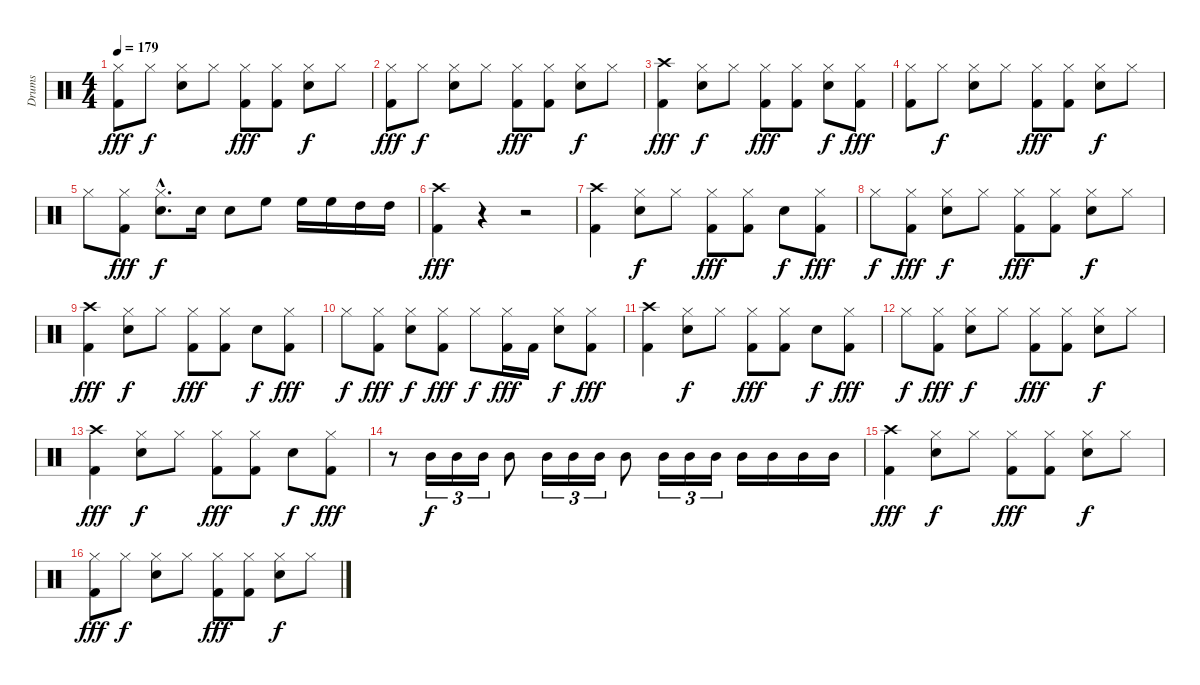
\track ("Drums" "Drums") {instrument percussion}
\staff {score}
\articulation defaults
\ts (4 4)
\tempo 179
\clef neutral
\ks c
("Hi-Hat (closed)" "Kick (hit) 2").8{dy fff} "Hi-Hat (closed)".8{dy f} ("Hi-Hat (closed)" "Electric Snare (hit)").8 "Hi-Hat (closed)".8 ("Hi-Hat (closed)" "Kick (hit) 2").8{dy fff} ("Hi-Hat (closed)" "Kick (hit) 2").8 ("Hi-Hat (closed)" "Electric Snare (hit)").8{dy f} "Hi-Hat (closed)".8 |
("Hi-Hat (closed)" "Kick (hit) 2").8{dy fff} "Hi-Hat (closed)".8{dy f} ("Hi-Hat (closed)" "Electric Snare (hit)").8 "Hi-Hat (closed)".8 ("Hi-Hat (closed)" "Kick (hit) 2").8{dy fff} ("Hi-Hat (closed)" "Kick (hit) 2").8 ("Hi-Hat (closed)" "Electric Snare (hit)").8{dy f} "Hi-Hat (closed)".8 |
("Crash high (hit)" "Kick (hit) 2").4{dy fff} ("Hi-Hat (closed)" "Electric Snare (hit)").8{dy f} "Hi-Hat (closed)".8 ("Hi-Hat (closed)" "Kick (hit) 2").8{dy fff} ("Hi-Hat (closed)" "Kick (hit) 2").8 ("Hi-Hat (closed)" "Electric Snare (hit)").8{dy f} ("Hi-Hat (closed)" "Kick (hit) 2").8{dy fff} |
("Hi-Hat (closed)" "Kick (hit) 2").8 "Hi-Hat (closed)".8{dy f} ("Hi-Hat (closed)" "Electric Snare (hit)").8 "Hi-Hat (closed)".8 ("Hi-Hat (closed)" "Kick (hit) 2").8{dy fff} ("Hi-Hat (closed)" "Kick (hit) 2").8 ("Hi-Hat (closed)" "Electric Snare (hit)").8{dy f} "Hi-Hat (closed)".8 |
"Hi-Hat (closed)".8 ("Hi-Hat (closed)" "Kick (hit) 2").8{dy fff} ("Hi-Hat (closed)"{hac} "Electric Snare (hit)"{hac}).8{d dy f} "Electric Snare (hit)".16 "Electric Snare (hit)".8 "High Floor Tom (hit)".8 "High Floor Tom (hit)".16 "High Floor Tom (hit)".16 "High Tom (hit)".16 "High Tom (hit)".16 |
("Crash high (hit)" "Kick (hit) 2").4{dy fff} r.4 r.2 |
("Crash high (hit)" "Kick (hit) 2").4 ("Hi-Hat (closed)" "Electric Snare (hit)").8{dy f} "Hi-Hat (closed)".8 ("Hi-Hat (closed)" "Kick (hit) 2").8{dy fff} ("Hi-Hat (closed)" "Kick (hit) 2").8 "Electric Snare (hit)".8{dy f} ("Hi-Hat (closed)" "Kick (hit) 2").8{dy fff} |
"Hi-Hat (closed)".8{dy f} ("Hi-Hat (closed)" "Kick (hit) 2").8{dy fff} ("Hi-Hat (closed)" "Electric Snare (hit)").8{dy f} "Hi-Hat (closed)".8 ("Hi-Hat (closed)" "Kick (hit) 2").8{dy fff} ("Hi-Hat (closed)" "Kick (hit) 2").8 ("Hi-Hat (closed)" "Electric Snare (hit)").8{dy f} "Hi-Hat (closed)".8 |
("Crash high (hit)" "Kick (hit) 2").4{dy fff} ("Hi-Hat (closed)" "Electric Snare (hit)").8{dy f} "Hi-Hat (closed)".8 ("Hi-Hat (closed)" "Kick (hit) 2").8{dy fff} ("Hi-Hat (closed)" "Kick (hit) 2").8 "Electric Snare (hit)".8{dy f} ("Hi-Hat (closed)" "Kick (hit) 2").8{dy fff} |
"Hi-Hat (closed)".8{dy f} ("Hi-Hat (closed)" "Kick (hit) 2").8{dy fff} ("Hi-Hat (closed)" "Electric Snare (hit)").8{dy f} ("Hi-Hat (closed)" "Kick (hit) 2").8{dy fff} "Hi-Hat (closed)".8{dy f} ("Hi-Hat (closed)" "Kick (hit) 2").16{dy fff} "Kick (hit) 2".16 ("Hi-Hat (closed)" "Electric Snare (hit)").8{dy f} ("Hi-Hat (closed)" "Kick (hit) 2").8{dy fff} |
("Crash high (hit)" "Kick (hit) 2").4 ("Hi-Hat (closed)" "Electric Snare (hit)").8{dy f} "Hi-Hat (closed)".8 ("Hi-Hat (closed)" "Kick (hit) 2").8{dy fff} ("Hi-Hat (closed)" "Kick (hit) 2").8 "Electric Snare (hit)".8{dy f} ("Hi-Hat (closed)" "Kick (hit) 2").8{dy fff} |
"Hi-Hat (closed)".8{dy f} ("Hi-Hat (closed)" "Kick (hit) 2").8{dy fff} ("Hi-Hat (closed)" "Electric Snare (hit)").8{dy f} "Hi-Hat (closed)".8 ("Hi-Hat (closed)" "Kick (hit) 2").8{dy fff} ("Hi-Hat (closed)" "Kick (hit) 2").8 ("Hi-Hat (closed)" "Electric Snare (hit)").8{dy f} "Hi-Hat (closed)".8 |
("Crash high (hit)" "Kick (hit) 2").4{dy fff} ("Hi-Hat (closed)" "Electric Snare (hit)").8{dy f} "Hi-Hat (closed)".8 ("Hi-Hat (closed)" "Kick (hit) 2").8{dy fff} ("Hi-Hat (closed)" "Kick (hit) 2").8 "Electric Snare (hit)".8{dy f} ("Hi-Hat (closed)" "Kick (hit) 2").8{dy fff} |
r.8 "Mid Tom (hit)".16{tu (3 2) dy f} "Mid Tom (hit)".16{tu (3 2)} "Mid Tom (hit)".16{tu (3 2)} "Mid Tom (hit)".8 "Mid Tom (hit)".16{tu (3 2)} "Mid Tom (hit)".16{tu (3 2)} "Mid Tom (hit)".16{tu (3 2)} "Mid Tom (hit)".8 "Mid Tom (hit)".16{tu (3 2)} "Mid Tom (hit)".16{tu (3 2)} "Mid Tom (hit)".16{tu (3 2)} "Mid Tom (hit)".16 "Mid Tom (hit)".16 "Mid Tom (hit)".16 "Mid Tom (hit)".16 |
("Crash high (hit)" "Kick (hit) 2").4{dy fff} ("Hi-Hat (closed)" "Electric Snare (hit)").8{dy f} "Hi-Hat (closed)".8 ("Hi-Hat (closed)" "Kick (hit) 2").8{dy fff} ("Hi-Hat (closed)" "Kick (hit) 2").8 ("Hi-Hat (closed)" "Electric Snare (hit)").8{dy f} "Hi-Hat (closed)".8 |
("Hi-Hat (closed)" "Kick (hit) 2").8{dy fff} "Hi-Hat (closed)".8{dy f} ("Hi-Hat (closed)" "Electric Snare (hit)").8 "Hi-Hat (closed)".8 ("Hi-Hat (closed)" "Kick (hit) 2").8{dy fff} ("Hi-Hat (closed)" "Kick (hit) 2").8 ("Hi-Hat (closed)" "Electric Snare (hit)").8{dy f} "Hi-Hat (closed)".8
